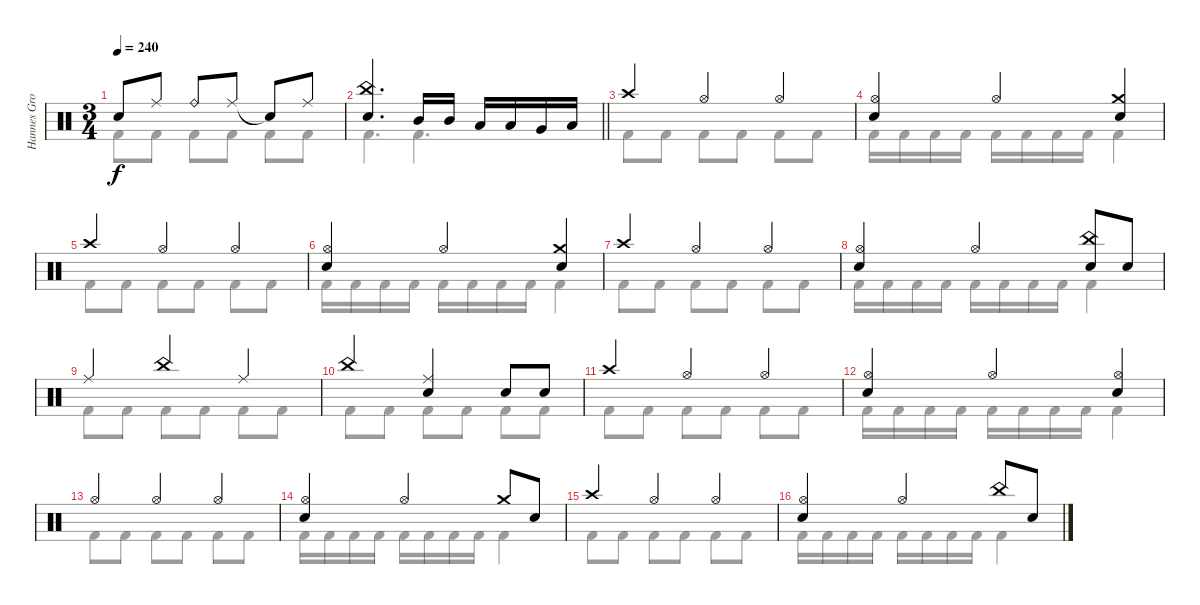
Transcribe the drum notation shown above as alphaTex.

\track ("Hannes Grossmann - drums" "Hannes Gro") {instrument percussion}
\staff {score}
\articulation defaults
\voice
\ts (3 4)
\tempo 240
\clef neutral
\ks c "Snare (hit)"{t}.8{dy f} "Ride (middle)".8 "Ride (bell)".8 "Ride (middle)".8 "Snare (hit)"{t}.8 "Ride (middle)".8
|
\barLineRight lightlight
("China (hit)" "Electric Snare (hit)").4{d} "Mid Tom (hit)".16 "Mid Tom (hit)".16 "Low Tom (hit)".16 "Low Tom (hit)".16 "Very Low Tom (hit)".16 "Low Floor Tom (hit)".16 |
"Crash high (hit)".4 "Hi-Hat (open)".4 "Hi-Hat (open)".4 |
("Hi-Hat (open)" "Electric Snare (hit)").4 "Hi-Hat (open)".4 ("Crash medium (hit)" "Electric Snare (hit)").4 |
"Crash high (hit)".4 "Hi-Hat (open)".4 "Hi-Hat (open)".4 |
("Hi-Hat (open)" "Electric Snare (hit)").4 "Hi-Hat (open)".4 ("Crash medium (hit)" "Electric Snare (hit)").4 |
"Crash high (hit)".4 "Hi-Hat (open)".4 "Hi-Hat (open)".4 |
("Hi-Hat (open)" "Electric Snare (hit)").4 "Hi-Hat (open)".4 ("China (hit)" "Electric Snare (hit)").8 "Electric Snare (hit)".8 |
"Ride (middle)".4 "China (hit)".4 "Ride (middle)".4 |
"China (hit)".4 ("Ride (middle)" "Electric Snare (hit)").4 "Electric Snare (hit)".8 "Electric Snare (hit)".8 |
"Crash high (hit)".4 "Hi-Hat (open)".4 "Hi-Hat (open)".4 |
("Hi-Hat (open)" "Electric Snare (hit)").4 "Hi-Hat (open)".4 ("Hi-Hat (open)" "Electric Snare (hit)").4 |
"Hi-Hat (open)".4 "Hi-Hat (open)".4 "Hi-Hat (open)".4 |
("Hi-Hat (open)" "Electric Snare (hit)").4 "Hi-Hat (open)".4 "Crash medium (hit)".8 "Electric Snare (hit)".8 |
"Crash high (hit)".4 "Hi-Hat (open)".4 "Hi-Hat (open)".4 |
("Hi-Hat (open)" "Electric Snare (hit)").4 "Hi-Hat (open)".4 "China (hit)".8 "Electric Snare (hit)".8
\voice
\clef neutral
\ottava regular
\simile none
\ks c "Kick (hit) 2".8{dy f} "Kick (hit) 2".8 "Kick (hit) 2".8 "Kick (hit) 2".8 "Kick (hit) 2".8 "Kick (hit) 2".8
|
\barLineRight lightlight "Kick (hit) 2".4{d} "Kick (hit) 2".4{d}
|
"Kick (hit) 2".8 "Kick (hit) 2".8 "Kick (hit) 2".8 "Kick (hit) 2".8 "Kick (hit) 2".8 "Kick (hit) 2".8 |
"Kick (hit) 2".16 "Kick (hit) 2".16 "Kick (hit) 2".16 "Kick (hit) 2".16 "Kick (hit) 2".16 "Kick (hit) 2".16 "Kick (hit) 2".16 "Kick (hit) 2".16 "Kick (hit) 2".4 |
"Kick (hit) 2".8 "Kick (hit) 2".8 "Kick (hit) 2".8 "Kick (hit) 2".8 "Kick (hit) 2".8 "Kick (hit) 2".8 |
"Kick (hit) 2".16 "Kick (hit) 2".16 "Kick (hit) 2".16 "Kick (hit) 2".16 "Kick (hit) 2".16 "Kick (hit) 2".16 "Kick (hit) 2".16 "Kick (hit) 2".16 "Kick (hit) 2".4 |
"Kick (hit) 2".8 "Kick (hit) 2".8 "Kick (hit) 2".8 "Kick (hit) 2".8 "Kick (hit) 2".8 "Kick (hit) 2".8 |
"Kick (hit) 2".16 "Kick (hit) 2".16 "Kick (hit) 2".16 "Kick (hit) 2".16 "Kick (hit) 2".16 "Kick (hit) 2".16 "Kick (hit) 2".16 "Kick (hit) 2".16 "Kick (hit) 2".4 |
"Kick (hit) 2".8 "Kick (hit) 2".8 "Kick (hit) 2".8 "Kick (hit) 2".8 "Kick (hit) 2".8 "Kick (hit) 2".8 |
"Kick (hit) 2".8 "Kick (hit) 2".8 "Kick (hit) 2".8 "Kick (hit) 2".8 "Kick (hit) 2".8 "Kick (hit) 2".8 |
"Kick (hit) 2".8 "Kick (hit) 2".8 "Kick (hit) 2".8 "Kick (hit) 2".8 "Kick (hit) 2".8 "Kick (hit) 2".8 |
"Kick (hit) 2".16 "Kick (hit) 2".16 "Kick (hit) 2".16 "Kick (hit) 2".16 "Kick (hit) 2".16 "Kick (hit) 2".16 "Kick (hit) 2".16 "Kick (hit) 2".16 "Kick (hit) 2".4 |
"Kick (hit) 2".8 "Kick (hit) 2".8 "Kick (hit) 2".8 "Kick (hit) 2".8 "Kick (hit) 2".8 "Kick (hit) 2".8 |
"Kick (hit) 2".16 "Kick (hit) 2".16 "Kick (hit) 2".16 "Kick (hit) 2".16 "Kick (hit) 2".16 "Kick (hit) 2".16 "Kick (hit) 2".16 "Kick (hit) 2".16 "Kick (hit) 2".4 |
"Kick (hit) 2".8 "Kick (hit) 2".8 "Kick (hit) 2".8 "Kick (hit) 2".8 "Kick (hit) 2".8 "Kick (hit) 2".8 |
"Kick (hit) 2".16 "Kick (hit) 2".16 "Kick (hit) 2".16 "Kick (hit) 2".16 "Kick (hit) 2".16 "Kick (hit) 2".16 "Kick (hit) 2".16 "Kick (hit) 2".16 "Kick (hit) 2".4
